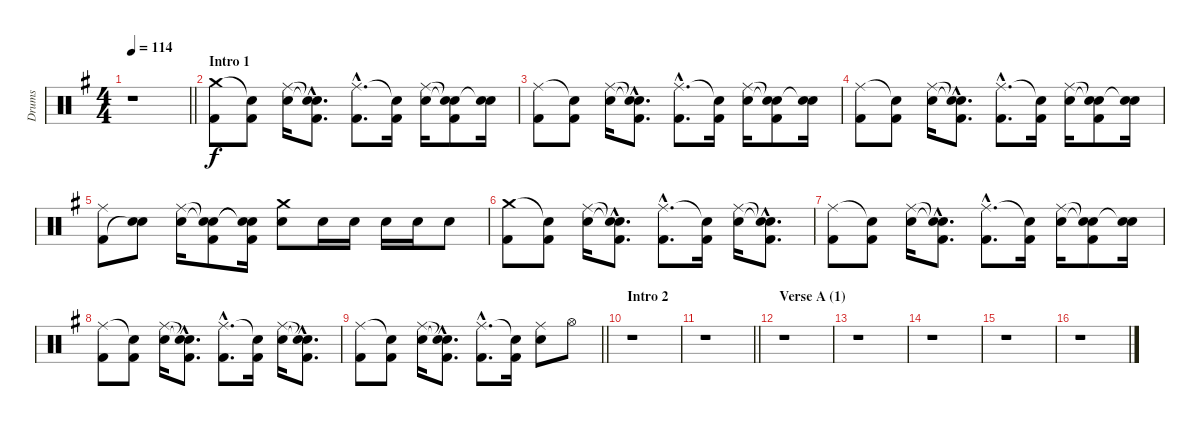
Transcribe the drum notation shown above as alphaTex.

\track ("Drums" "Drums") {instrument percussion}
\staff {score}
\articulation defaults
\ts (4 4)
\tempo 114
\clef neutral
\barLineRight lightlight
\ks eminor
r.1{dy f} |
\section ("" "Intro 1")
("Crash medium (hit)" "Kick (hit) 2").8 ("Snare (hit)"{t} "Kick (hit) 2").8 ("Ride (middle)" "Electric Snare (hit)").16 ("Snare (hit)"{hac t} "Snare (hit)"{hac t} "Kick (hit) 2"{hac}).8{d} ("Ride (middle)"{hac} "Kick (hit) 2"{hac}).8{d} ("Snare (hit)"{t} "Kick (hit) 2").16 ("Ride (middle)" "Electric Snare (hit)").16 ("Snare (hit)"{t} "Snare (hit)"{t} "Kick (hit) 2").8 ("Electric Snare (hit)" "Snare (hit)"{t}).16 |
("Ride (middle)" "Kick (hit) 2").8 ("Snare (hit)"{t} "Kick (hit) 2").8 ("Ride (middle)" "Electric Snare (hit)").16 ("Snare (hit)"{hac t} "Snare (hit)"{hac t} "Kick (hit) 2"{hac}).8{d} ("Ride (middle)"{hac} "Kick (hit) 2"{hac}).8{d} ("Snare (hit)"{t} "Kick (hit) 2").16 ("Ride (middle)" "Electric Snare (hit)").16 ("Snare (hit)"{t} "Snare (hit)"{t} "Kick (hit) 2").8 ("Electric Snare (hit)" "Snare (hit)"{t}).16 |
("Ride (middle)" "Kick (hit) 2").8 ("Snare (hit)"{t} "Kick (hit) 2").8 ("Ride (middle)" "Electric Snare (hit)").16 ("Snare (hit)"{hac t} "Snare (hit)"{hac t} "Kick (hit) 2"{hac}).8{d} ("Ride (middle)"{hac} "Kick (hit) 2"{hac}).8{d} ("Snare (hit)"{t} "Kick (hit) 2").16 ("Ride (middle)" "Electric Snare (hit)").16 ("Snare (hit)"{t} "Snare (hit)"{t} "Kick (hit) 2").8 ("Electric Snare (hit)" "Snare (hit)"{t}).16 |
("Ride (middle)" "Kick (hit) 2").8 ("Electric Snare (hit)" "Snare (hit)"{t}).8 ("Ride (middle)" "Electric Snare (hit)").16 ("Snare (hit)"{t} "Snare (hit)"{t} "Kick (hit) 2").8 ("Snare (hit)"{t} "Snare (hit)"{t} "Kick (hit) 2").16 ("Crash medium (hit)" "Electric Snare (hit)").8 "Electric Snare (hit)".16 "Electric Snare (hit)".16 "Electric Snare (hit)".16 "Electric Snare (hit)".16 "Electric Snare (hit)".8 |
("Crash medium (hit)" "Kick (hit) 2").8 ("Snare (hit)"{t} "Kick (hit) 2").8 ("Ride (middle)" "Electric Snare (hit)").16 ("Snare (hit)"{hac t} "Snare (hit)"{hac t} "Kick (hit) 2"{hac}).8{d} ("Ride (middle)"{hac} "Kick (hit) 2"{hac}).8{d} ("Snare (hit)"{t} "Kick (hit) 2").16 ("Ride (middle)" "Electric Snare (hit)").16 ("Snare (hit)"{hac t} "Snare (hit)"{hac t} "Kick (hit) 2"{hac}).8{d} |
("Ride (middle)" "Kick (hit) 2").8 ("Snare (hit)"{t} "Kick (hit) 2").8 ("Ride (middle)" "Electric Snare (hit)").16 ("Snare (hit)"{hac t} "Snare (hit)"{hac t} "Kick (hit) 2"{hac}).8{d} ("Ride (middle)"{hac} "Kick (hit) 2"{hac}).8{d} ("Snare (hit)"{t} "Kick (hit) 2").16 ("Ride (middle)" "Electric Snare (hit)").16 ("Snare (hit)"{t} "Snare (hit)"{t} "Kick (hit) 2").8 ("Electric Snare (hit)" "Snare (hit)"{t}).16 |
("Ride (middle)" "Kick (hit) 2").8 ("Snare (hit)"{t} "Kick (hit) 2").8 ("Ride (middle)" "Electric Snare (hit)").16 ("Snare (hit)"{hac t} "Snare (hit)"{hac t} "Kick (hit) 2"{hac}).8{d} ("Ride (middle)"{hac} "Kick (hit) 2"{hac}).8{d} ("Snare (hit)"{t} "Kick (hit) 2").16 ("Ride (middle)" "Electric Snare (hit)").16 ("Snare (hit)"{hac t} "Snare (hit)"{hac t} "Kick (hit) 2"{hac}).8{d} |
\barLineRight lightlight
("Ride (middle)" "Kick (hit) 2").8 ("Snare (hit)"{t} "Kick (hit) 2").8 ("Ride (middle)" "Electric Snare (hit)").16 ("Snare (hit)"{hac t} "Snare (hit)"{hac t} "Kick (hit) 2"{hac}).8{d} ("Ride (middle)"{hac} "Kick (hit) 2"{hac}).8{d} ("Snare (hit)"{t} "Kick (hit) 2").16 ("Ride (middle)" "Electric Snare (hit)").8 "Hi-Hat (open)".8 |
\section ("" "Intro 2")
r.1 |
\barLineRight lightlight
r.1 |
\section ("" "Verse A (1)")
r.1 |
r.1 |
r.1 |
r.1 |
r.1
